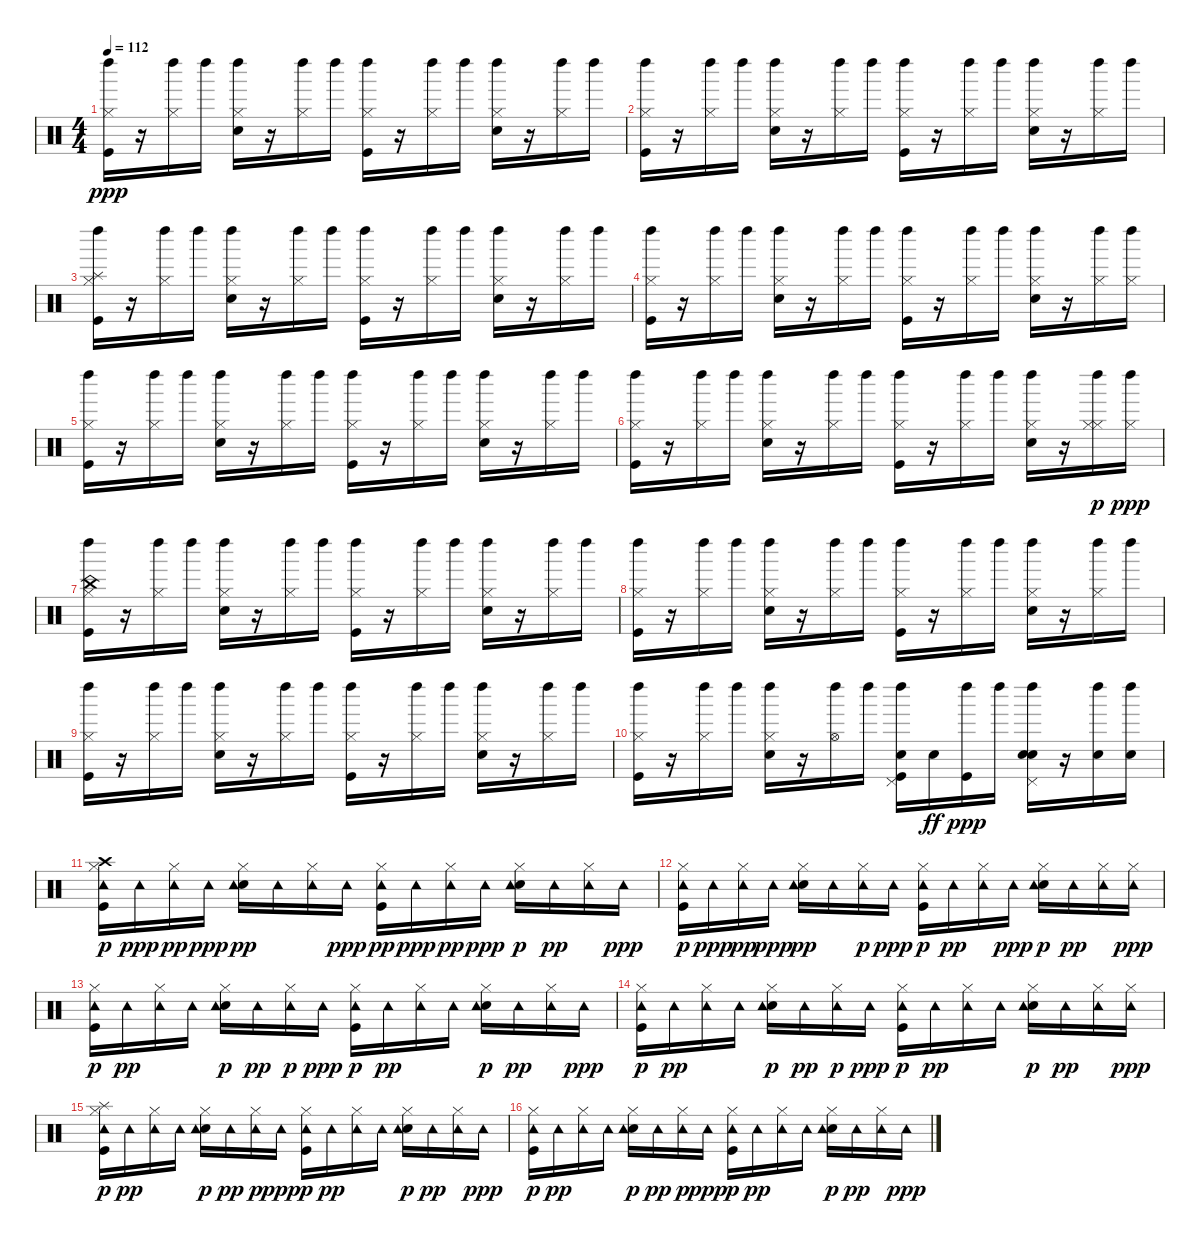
\track "" {instrument percussion}
\staff {score}
\articulation defaults
\ts (4 4)
\tempo 112
\clef neutral
\ks c
("Kick (hit)" "Hi-Hat (closed)" "Left Maraca (hit)").16{dy ppp} r.16 ("Hi-Hat (closed)" "Left Maraca (hit)").16 "Left Maraca (hit)".16 ("Electric Snare (hit)" "Hi-Hat (closed)" "Left Maraca (hit)").16 r.16 ("Hi-Hat (closed)" "Left Maraca (hit)").16 "Left Maraca (hit)".16 ("Kick (hit)" "Hi-Hat (closed)" "Left Maraca (hit)").16 r.16 ("Hi-Hat (closed)" "Left Maraca (hit)").16 "Left Maraca (hit)".16 ("Electric Snare (hit)" "Hi-Hat (closed)" "Left Maraca (hit)").16 r.16 ("Hi-Hat (closed)" "Left Maraca (hit)").16 "Left Maraca (hit)".16 |
("Kick (hit)" "Hi-Hat (closed)" "Left Maraca (hit)").16 r.16 ("Hi-Hat (closed)" "Left Maraca (hit)").16 "Left Maraca (hit)".16 ("Electric Snare (hit)" "Hi-Hat (closed)" "Left Maraca (hit)").16 r.16 ("Hi-Hat (closed)" "Left Maraca (hit)").16 "Left Maraca (hit)".16 ("Kick (hit)" "Hi-Hat (closed)" "Left Maraca (hit)").16 r.16 ("Hi-Hat (closed)" "Left Maraca (hit)").16 "Left Maraca (hit)".16 ("Electric Snare (hit)" "Hi-Hat (closed)" "Left Maraca (hit)").16 r.16 ("Hi-Hat (closed)" "Left Maraca (hit)").16 "Left Maraca (hit)".16 |
("Kick (hit)" "Hi-Hat (closed)" "Splash (hit)" "Left Maraca (hit)").16 r.16 ("Hi-Hat (closed)" "Left Maraca (hit)").16 "Left Maraca (hit)".16 ("Electric Snare (hit)" "Hi-Hat (closed)" "Left Maraca (hit)").16 r.16 ("Hi-Hat (closed)" "Left Maraca (hit)").16 "Left Maraca (hit)".16 ("Kick (hit)" "Hi-Hat (closed)" "Left Maraca (hit)").16 r.16 ("Hi-Hat (closed)" "Left Maraca (hit)").16 "Left Maraca (hit)".16 ("Electric Snare (hit)" "Hi-Hat (closed)" "Left Maraca (hit)").16 r.16 ("Hi-Hat (closed)" "Left Maraca (hit)").16 "Left Maraca (hit)".16 |
("Kick (hit)" "Hi-Hat (closed)" "Left Maraca (hit)").16 r.16 ("Hi-Hat (closed)" "Left Maraca (hit)").16 "Left Maraca (hit)".16 ("Electric Snare (hit)" "Hi-Hat (closed)" "Left Maraca (hit)").16 r.16 ("Hi-Hat (closed)" "Left Maraca (hit)").16 "Left Maraca (hit)".16 ("Kick (hit)" "Hi-Hat (closed)" "Left Maraca (hit)").16 r.16 ("Hi-Hat (closed)" "Left Maraca (hit)").16 "Left Maraca (hit)".16 ("Electric Snare (hit)" "Hi-Hat (closed)" "Left Maraca (hit)").16 r.16 ("Hi-Hat (closed)" "Left Maraca (hit)").16 ("Hi-Hat (closed)" "Left Maraca (hit)").16 |
("Kick (hit)" "Hi-Hat (closed)" "Left Maraca (hit)").16 r.16 ("Hi-Hat (closed)" "Left Maraca (hit)").16 "Left Maraca (hit)".16 ("Electric Snare (hit)" "Hi-Hat (closed)" "Left Maraca (hit)").16 r.16 ("Hi-Hat (closed)" "Left Maraca (hit)").16 "Left Maraca (hit)".16 ("Kick (hit)" "Hi-Hat (closed)" "Left Maraca (hit)").16 r.16 ("Hi-Hat (closed)" "Left Maraca (hit)").16 "Left Maraca (hit)".16 ("Electric Snare (hit)" "Hi-Hat (closed)" "Left Maraca (hit)").16 r.16 ("Hi-Hat (closed)" "Left Maraca (hit)").16 "Left Maraca (hit)".16 |
("Kick (hit)" "Hi-Hat (closed)" "Left Maraca (hit)").16 r.16 ("Hi-Hat (closed)" "Left Maraca (hit)").16 "Left Maraca (hit)".16 ("Electric Snare (hit)" "Hi-Hat (closed)" "Left Maraca (hit)").16 r.16 ("Hi-Hat (closed)" "Left Maraca (hit)").16 "Left Maraca (hit)".16 ("Kick (hit)" "Hi-Hat (closed)" "Left Maraca (hit)").16 r.16 ("Hi-Hat (closed)" "Left Maraca (hit)").16 "Left Maraca (hit)".16 ("Electric Snare (hit)" "Hi-Hat (closed)" "Left Maraca (hit)").16 r.16 ("Hi-Hat (closed)" "Left Maraca (hit)" "Hi-Hat (closed)").16{dy p} ("Hi-Hat (closed)" "Left Maraca (hit)").16{dy ppp} |
("Kick (hit)" "Hi-Hat (closed)" "China (hit)" "Left Maraca (hit)").16 r.16 ("Hi-Hat (closed)" "Left Maraca (hit)").16 "Left Maraca (hit)".16 ("Electric Snare (hit)" "Hi-Hat (closed)" "Left Maraca (hit)").16 r.16 ("Hi-Hat (closed)" "Left Maraca (hit)").16 "Left Maraca (hit)".16 ("Kick (hit)" "Hi-Hat (closed)" "Left Maraca (hit)").16 r.16 ("Hi-Hat (closed)" "Left Maraca (hit)").16 "Left Maraca (hit)".16 ("Electric Snare (hit)" "Hi-Hat (closed)" "Left Maraca (hit)").16 r.16 ("Hi-Hat (closed)" "Left Maraca (hit)").16 "Left Maraca (hit)".16 |
("Kick (hit)" "Hi-Hat (closed)" "Left Maraca (hit)").16 r.16 ("Hi-Hat (closed)" "Left Maraca (hit)").16 "Left Maraca (hit)".16 ("Electric Snare (hit)" "Hi-Hat (closed)" "Left Maraca (hit)").16 r.16 ("Hi-Hat (closed)" "Left Maraca (hit)").16 "Left Maraca (hit)".16 ("Kick (hit)" "Hi-Hat (closed)" "Left Maraca (hit)").16 r.16 ("Hi-Hat (closed)" "Left Maraca (hit)").16 "Left Maraca (hit)".16 ("Electric Snare (hit)" "Hi-Hat (closed)" "Left Maraca (hit)").16 r.16 ("Hi-Hat (closed)" "Left Maraca (hit)").16 "Left Maraca (hit)".16 |
("Kick (hit)" "Hi-Hat (closed)" "Left Maraca (hit)").16 r.16 ("Hi-Hat (closed)" "Left Maraca (hit)").16 "Left Maraca (hit)".16 ("Electric Snare (hit)" "Hi-Hat (closed)" "Left Maraca (hit)").16 r.16 ("Hi-Hat (closed)" "Left Maraca (hit)").16 "Left Maraca (hit)".16 ("Kick (hit)" "Hi-Hat (closed)" "Left Maraca (hit)").16 r.16 ("Hi-Hat (closed)" "Left Maraca (hit)").16 "Left Maraca (hit)".16 ("Electric Snare (hit)" "Hi-Hat (closed)" "Left Maraca (hit)").16 r.16 ("Hi-Hat (closed)" "Left Maraca (hit)").16 "Left Maraca (hit)".16 |
("Kick (hit)" "Hi-Hat (closed)" "Left Maraca (hit)").16 r.16 ("Hi-Hat (closed)" "Left Maraca (hit)").16 "Left Maraca (hit)".16 ("Electric Snare (hit)" "Hi-Hat (closed)" "Left Maraca (hit)").16 r.16 ("Hi-Hat (open)" "Left Maraca (hit)").16 "Left Maraca (hit)".16 ("Kick (hit)" "Electric Snare (hit)" "Pedal Hi-Hat (hit)" "Left Maraca (hit)").16 "Electric Snare (hit)".16{dy ff} ("Kick (hit)" "Left Maraca (hit)").16{dy ppp} "Left Maraca (hit)".16 ("Electric Snare (hit)" "Electric Snare (hit)" "Pedal Hi-Hat (hit)" "Left Maraca (hit)").16 r.16 ("Electric Snare (hit)" "Left Maraca (hit)").16 ("Electric Snare (hit)" "Left Maraca (hit)").16 |
("Kick (hit)" "Hi-Hat (closed)" "Crash high (hit)" "Tambourine (hit)").16{dy p} "Tambourine (hit)".16{dy ppp} ("Hi-Hat (closed)" "Tambourine (hit)").16{dy pp} "Tambourine (hit)".16{dy ppp} ("Electric Snare (hit)" "Hi-Hat (closed)" "Tambourine (hit)").16{dy pp} "Tambourine (hit)".16 ("Hi-Hat (closed)" "Tambourine (hit)").16 "Tambourine (hit)".16{dy ppp} ("Kick (hit)" "Hi-Hat (closed)" "Tambourine (hit)").16{dy pp} "Tambourine (hit)".16{dy ppp} ("Hi-Hat (closed)" "Tambourine (hit)").16{dy pp} "Tambourine (hit)".16{dy ppp} ("Electric Snare (hit)" "Hi-Hat (closed)" "Tambourine (hit)").16{dy p} "Tambourine (hit)".16{dy pp} ("Hi-Hat (closed)" "Tambourine (hit)").16 "Tambourine (hit)".16{dy ppp} |
("Kick (hit)" "Hi-Hat (closed)" "Tambourine (hit)").16{dy p} "Tambourine (hit)".16{dy ppp} ("Hi-Hat (closed)" "Tambourine (hit)").16{dy pp} "Tambourine (hit)".16{dy ppp} ("Electric Snare (hit)" "Hi-Hat (closed)" "Tambourine (hit)").16{dy pp} "Tambourine (hit)".16 ("Hi-Hat (closed)" "Tambourine (hit)").16{dy p} "Tambourine (hit)".16{dy ppp} ("Kick (hit)" "Hi-Hat (closed)" "Tambourine (hit)").16{dy p} "Tambourine (hit)".16{dy pp} ("Hi-Hat (closed)" "Tambourine (hit)").16 "Tambourine (hit)".16{dy ppp} ("Electric Snare (hit)" "Hi-Hat (closed)" "Tambourine (hit)").16{dy p} "Tambourine (hit)".16{dy pp} ("Hi-Hat (closed)" "Tambourine (hit)").16 ("Hi-Hat (closed)" "Tambourine (hit)").16{dy ppp} |
("Kick (hit)" "Hi-Hat (closed)" "Tambourine (hit)").16{dy p} "Tambourine (hit)".16{dy pp} ("Hi-Hat (closed)" "Tambourine (hit)").16 "Tambourine (hit)".16 ("Electric Snare (hit)" "Hi-Hat (closed)" "Tambourine (hit)").16{dy p} "Tambourine (hit)".16{dy pp} ("Hi-Hat (closed)" "Tambourine (hit)").16{dy p} "Tambourine (hit)".16{dy ppp} ("Kick (hit)" "Hi-Hat (closed)" "Tambourine (hit)").16{dy p} "Tambourine (hit)".16{dy pp} ("Hi-Hat (closed)" "Tambourine (hit)").16 "Tambourine (hit)".16 ("Electric Snare (hit)" "Hi-Hat (closed)" "Tambourine (hit)").16{dy p} "Tambourine (hit)".16{dy pp} ("Hi-Hat (closed)" "Tambourine (hit)").16 "Tambourine (hit)".16{dy ppp} |
("Kick (hit)" "Hi-Hat (closed)" "Tambourine (hit)").16{dy p} "Tambourine (hit)".16{dy pp} ("Hi-Hat (closed)" "Tambourine (hit)").16 "Tambourine (hit)".16 ("Electric Snare (hit)" "Hi-Hat (closed)" "Tambourine (hit)").16{dy p} "Tambourine (hit)".16{dy pp} ("Hi-Hat (closed)" "Tambourine (hit)").16{dy p} "Tambourine (hit)".16{dy ppp} ("Kick (hit)" "Hi-Hat (closed)" "Tambourine (hit)").16{dy p} "Tambourine (hit)".16{dy pp} ("Hi-Hat (closed)" "Tambourine (hit)").16 "Tambourine (hit)".16 ("Electric Snare (hit)" "Hi-Hat (closed)" "Tambourine (hit)").16{dy p} "Tambourine (hit)".16{dy pp} ("Hi-Hat (closed)" "Tambourine (hit)").16 ("Hi-Hat (closed)" "Tambourine (hit)").16{dy ppp} |
("Kick (hit)" "Hi-Hat (closed)" "Tambourine (hit)" "Splash (hit)").16{dy p} "Tambourine (hit)".16{dy pp} ("Hi-Hat (closed)" "Tambourine (hit)").16 "Tambourine (hit)".16 ("Electric Snare (hit)" "Hi-Hat (closed)" "Tambourine (hit)").16{dy p} "Tambourine (hit)".16{dy pp} ("Hi-Hat (closed)" "Tambourine (hit)").16{dy p} "Tambourine (hit)".16{dy ppp} ("Kick (hit)" "Hi-Hat (closed)" "Tambourine (hit)").16{dy p} "Tambourine (hit)".16{dy pp} ("Hi-Hat (closed)" "Tambourine (hit)").16 "Tambourine (hit)".16 ("Electric Snare (hit)" "Hi-Hat (closed)" "Tambourine (hit)").16{dy p} "Tambourine (hit)".16{dy pp} ("Hi-Hat (closed)" "Tambourine (hit)").16 "Tambourine (hit)".16{dy ppp} |
("Kick (hit)" "Hi-Hat (closed)" "Tambourine (hit)").16{dy p} "Tambourine (hit)".16{dy pp} ("Hi-Hat (closed)" "Tambourine (hit)").16 "Tambourine (hit)".16 ("Electric Snare (hit)" "Hi-Hat (closed)" "Tambourine (hit)").16{dy p} "Tambourine (hit)".16{dy pp} ("Hi-Hat (closed)" "Tambourine (hit)").16{dy p} "Tambourine (hit)".16{dy ppp} ("Kick (hit)" "Hi-Hat (closed)" "Tambourine (hit)").16{dy p} "Tambourine (hit)".16{dy pp} ("Hi-Hat (closed)" "Tambourine (hit)").16 "Tambourine (hit)".16 ("Electric Snare (hit)" "Hi-Hat (closed)" "Tambourine (hit)").16{dy p} "Tambourine (hit)".16{dy pp} ("Hi-Hat (closed)" "Tambourine (hit)").16 "Tambourine (hit)".16{dy ppp}
